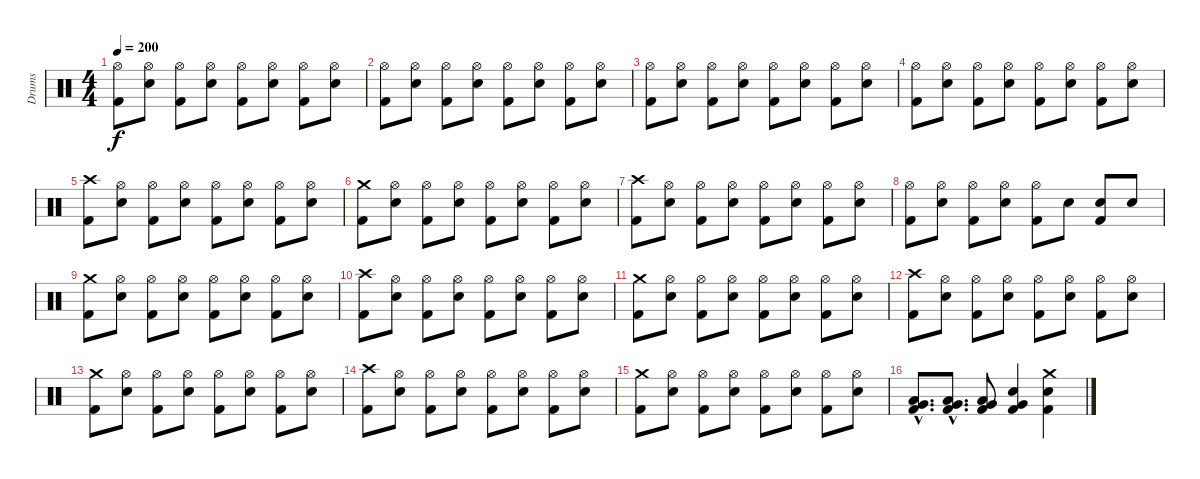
\track ("Drums" "Drums") {instrument percussion}
\staff {score}
\articulation defaults
\ts (4 4)
\tempo 200
\clef neutral
\ks c
("Hi-Hat (open)" "Kick (hit) 2").8{dy f} ("Hi-Hat (open)" "Snare (hit) 2").8 ("Hi-Hat (open)" "Kick (hit) 2").8 ("Hi-Hat (open)" "Snare (hit) 2").8 ("Hi-Hat (open)" "Kick (hit) 2").8 ("Hi-Hat (open)" "Snare (hit) 2").8 ("Hi-Hat (open)" "Kick (hit) 2").8 ("Hi-Hat (open)" "Snare (hit) 2").8 |
("Hi-Hat (open)" "Kick (hit) 2").8 ("Hi-Hat (open)" "Snare (hit) 2").8 ("Hi-Hat (open)" "Kick (hit) 2").8 ("Hi-Hat (open)" "Snare (hit) 2").8 ("Hi-Hat (open)" "Kick (hit) 2").8 ("Hi-Hat (open)" "Snare (hit) 2").8 ("Hi-Hat (open)" "Kick (hit) 2").8 ("Hi-Hat (open)" "Snare (hit) 2").8 |
("Hi-Hat (open)" "Kick (hit) 2").8 ("Hi-Hat (open)" "Snare (hit) 2").8 ("Hi-Hat (open)" "Kick (hit) 2").8 ("Hi-Hat (open)" "Snare (hit) 2").8 ("Hi-Hat (open)" "Kick (hit) 2").8 ("Hi-Hat (open)" "Snare (hit) 2").8 ("Hi-Hat (open)" "Kick (hit) 2").8 ("Hi-Hat (open)" "Snare (hit) 2").8 |
("Hi-Hat (open)" "Kick (hit) 2").8 ("Hi-Hat (open)" "Snare (hit) 2").8 ("Hi-Hat (open)" "Kick (hit) 2").8 ("Hi-Hat (open)" "Snare (hit) 2").8 ("Hi-Hat (open)" "Kick (hit) 2").8 ("Hi-Hat (open)" "Snare (hit) 2").8 ("Hi-Hat (open)" "Kick (hit) 2").8 ("Hi-Hat (open)" "Snare (hit) 2").8 |
("Crash high (hit)" "Kick (hit) 2").8 ("Hi-Hat (open)" "Snare (hit) 2").8 ("Hi-Hat (open)" "Kick (hit) 2").8 ("Hi-Hat (open)" "Snare (hit) 2").8 ("Hi-Hat (open)" "Kick (hit) 2").8 ("Hi-Hat (open)" "Snare (hit) 2").8 ("Hi-Hat (open)" "Kick (hit) 2").8 ("Hi-Hat (open)" "Snare (hit) 2").8 |
("Crash medium (hit)" "Kick (hit) 2").8 ("Hi-Hat (open)" "Snare (hit) 2").8 ("Hi-Hat (open)" "Kick (hit) 2").8 ("Hi-Hat (open)" "Snare (hit) 2").8 ("Hi-Hat (open)" "Kick (hit) 2").8 ("Hi-Hat (open)" "Snare (hit) 2").8 ("Hi-Hat (open)" "Kick (hit) 2").8 ("Hi-Hat (open)" "Snare (hit) 2").8 |
("Crash high (hit)" "Kick (hit) 2").8 ("Hi-Hat (open)" "Snare (hit) 2").8 ("Hi-Hat (open)" "Kick (hit) 2").8 ("Hi-Hat (open)" "Snare (hit) 2").8 ("Hi-Hat (open)" "Kick (hit) 2").8 ("Hi-Hat (open)" "Snare (hit) 2").8 ("Hi-Hat (open)" "Kick (hit) 2").8 ("Hi-Hat (open)" "Snare (hit) 2").8 |
("Hi-Hat (open)" "Kick (hit) 2").8 ("Hi-Hat (open)" "Snare (hit) 2").8 ("Hi-Hat (open)" "Kick (hit) 2").8 ("Hi-Hat (open)" "Snare (hit) 2").8 ("Hi-Hat (open)" "Kick (hit) 2").8 "Snare (hit) 2".8 ("Snare (hit) 2" "Kick (hit) 2").8 "Snare (hit) 2".8 |
("Crash medium (hit)" "Kick (hit) 2").8 ("Hi-Hat (open)" "Snare (hit) 2").8 ("Hi-Hat (open)" "Kick (hit) 2").8 ("Hi-Hat (open)" "Snare (hit) 2").8 ("Hi-Hat (open)" "Kick (hit) 2").8 ("Hi-Hat (open)" "Snare (hit) 2").8 ("Hi-Hat (open)" "Kick (hit) 2").8 ("Hi-Hat (open)" "Snare (hit) 2").8 |
("Crash high (hit)" "Kick (hit) 2").8 ("Hi-Hat (open)" "Snare (hit) 2").8 ("Hi-Hat (open)" "Kick (hit) 2").8 ("Hi-Hat (open)" "Snare (hit) 2").8 ("Hi-Hat (open)" "Kick (hit) 2").8 ("Hi-Hat (open)" "Snare (hit) 2").8 ("Hi-Hat (open)" "Kick (hit) 2").8 ("Hi-Hat (open)" "Snare (hit) 2").8 |
("Crash medium (hit)" "Kick (hit) 2").8 ("Hi-Hat (open)" "Snare (hit) 2").8 ("Hi-Hat (open)" "Kick (hit) 2").8 ("Hi-Hat (open)" "Snare (hit) 2").8 ("Hi-Hat (open)" "Kick (hit) 2").8 ("Hi-Hat (open)" "Snare (hit) 2").8 ("Hi-Hat (open)" "Kick (hit) 2").8 ("Hi-Hat (open)" "Snare (hit) 2").8 |
("Crash high (hit)" "Kick (hit) 2").8 ("Hi-Hat (open)" "Snare (hit) 2").8 ("Hi-Hat (open)" "Kick (hit) 2").8 ("Hi-Hat (open)" "Snare (hit) 2").8 ("Hi-Hat (open)" "Kick (hit) 2").8 ("Hi-Hat (open)" "Snare (hit) 2").8 ("Hi-Hat (open)" "Kick (hit) 2").8 ("Hi-Hat (open)" "Snare (hit) 2").8 |
("Crash medium (hit)" "Kick (hit) 2").8 ("Hi-Hat (open)" "Snare (hit) 2").8 ("Hi-Hat (open)" "Kick (hit) 2").8 ("Hi-Hat (open)" "Snare (hit) 2").8 ("Hi-Hat (open)" "Kick (hit) 2").8 ("Hi-Hat (open)" "Snare (hit) 2").8 ("Hi-Hat (open)" "Kick (hit) 2").8 ("Hi-Hat (open)" "Snare (hit) 2").8 |
("Crash high (hit)" "Kick (hit) 2").8 ("Hi-Hat (open)" "Snare (hit) 2").8 ("Hi-Hat (open)" "Kick (hit) 2").8 ("Hi-Hat (open)" "Snare (hit) 2").8 ("Hi-Hat (open)" "Kick (hit) 2").8 ("Hi-Hat (open)" "Snare (hit) 2").8 ("Hi-Hat (open)" "Kick (hit) 2").8 ("Hi-Hat (open)" "Snare (hit) 2").8 |
("Crash medium (hit)" "Kick (hit) 2").8 ("Hi-Hat (open)" "Snare (hit) 2").8 ("Hi-Hat (open)" "Kick (hit) 2").8 ("Hi-Hat (open)" "Snare (hit) 2").8 ("Hi-Hat (open)" "Kick (hit) 2").8 ("Hi-Hat (open)" "Snare (hit) 2").8 ("Hi-Hat (open)" "Kick (hit) 2").8 ("Hi-Hat (open)" "Snare (hit) 2").8 |
("Very Low Tom (hit)"{hac} "Low Tom (hit)"{hac} "Kick (hit) 2"{hac}).8{d} ("Very Low Tom (hit)"{hac} "Low Tom (hit)"{hac} "Kick (hit) 2"{hac}).8{d} ("Very Low Tom (hit)" "Low Tom (hit)" "Kick (hit) 2").8 ("Very Low Tom (hit)" "Snare (hit) 2" "Kick (hit) 2").4 ("Crash medium (hit)" "Snare (hit) 2" "Kick (hit) 2").4
